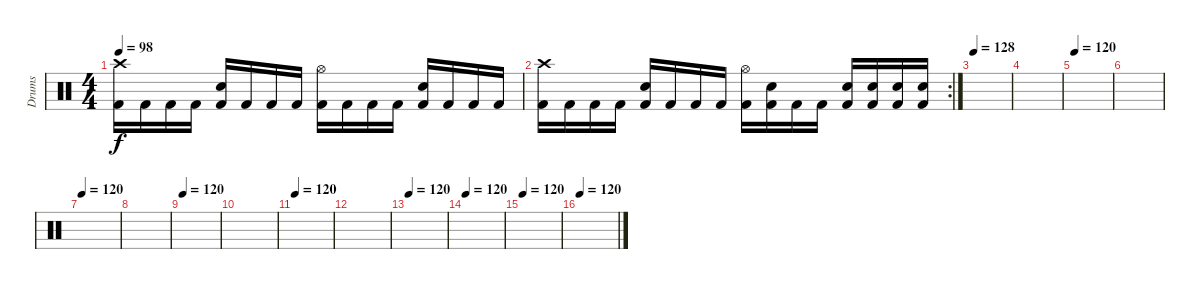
\track ("Drums" "Drums") {instrument percussion}
\staff {score}
\articulation defaults
\ts (4 4)
\tempo 98
\clef neutral
\ks c
("Crash high (hit)" "Kick (hit) 2").16{dy f} "Kick (hit) 2".16 "Kick (hit) 2".16 "Kick (hit) 2".16 ("Electric Snare (hit)" "Kick (hit) 2").16 "Kick (hit) 2".16 "Kick (hit) 2".16 "Kick (hit) 2".16 ("Hi-Hat (open)" "Kick (hit) 2").16 "Kick (hit) 2".16 "Kick (hit) 2".16 "Kick (hit) 2".16 ("Electric Snare (hit)" "Kick (hit) 2").16 "Kick (hit) 2".16 "Kick (hit) 2".16 "Kick (hit) 2".16 |
\rc 2
("Crash high (hit)" "Kick (hit) 2").16 "Kick (hit) 2".16 "Kick (hit) 2".16 "Kick (hit) 2".16 ("Electric Snare (hit)" "Kick (hit) 2").16 "Kick (hit) 2".16 "Kick (hit) 2".16 "Kick (hit) 2".16 ("Hi-Hat (open)" "Kick (hit) 2").16 ("Electric Snare (hit)" "Kick (hit) 2").16 "Kick (hit) 2".16 "Kick (hit) 2".16 ("Electric Snare (hit)" "Kick (hit) 2").16 ("Electric Snare (hit)" "Kick (hit) 2").16 ("Electric Snare (hit)" "Kick (hit) 2").16 ("Electric Snare (hit)" "Kick (hit) 2").16 |
\tempo 128
|
|
\tempo 120
|
|
\tempo 120
|
|
\tempo 120
|
|
\tempo 120
|
|
\tempo 120
|
\tempo 120
|
\tempo 120
|
\tempo 120
